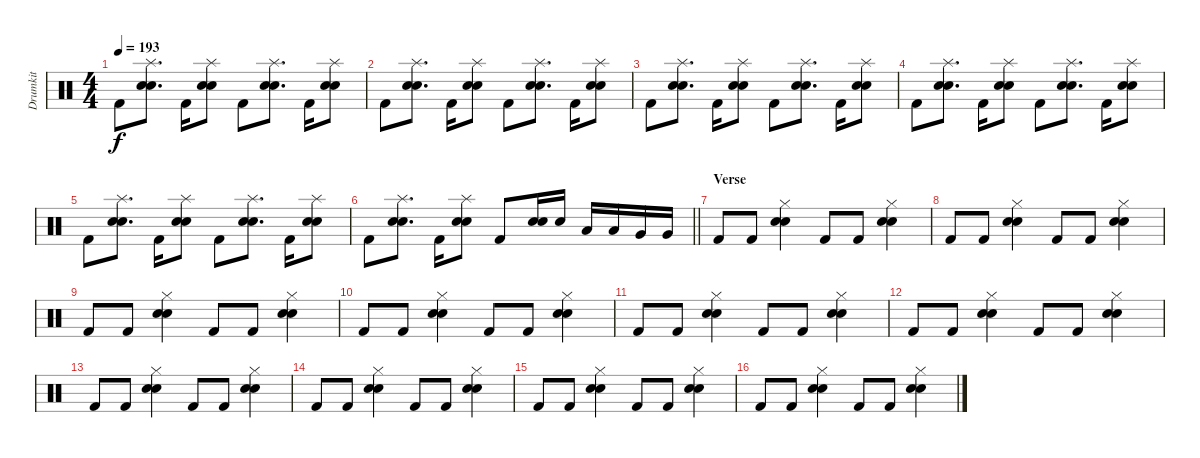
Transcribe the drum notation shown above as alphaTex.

\track ("Drumkit" "Drumkit") {instrument percussion}
\staff {score}
\articulation defaults
\ts (4 4)
\tempo 193
\clef neutral
\ks c "Kick (hit) 2".8{dy f}
("Splash (hit)" "Electric Snare (hit)" "Snare (hit) 2").8{d} "Kick (hit) 2".16 ("Splash (hit)" "Electric Snare (hit)" "Snare (hit) 2").8 "Kick (hit) 2".8 ("Splash (hit)" "Electric Snare (hit)" "Snare (hit) 2").8{d} "Kick (hit) 2".16 ("Splash (hit)" "Electric Snare (hit)" "Snare (hit) 2").8 |
"Kick (hit) 2".8 ("Splash (hit)" "Electric Snare (hit)" "Snare (hit) 2").8{d} "Kick (hit) 2".16 ("Splash (hit)" "Electric Snare (hit)" "Snare (hit) 2").8 "Kick (hit) 2".8 ("Splash (hit)" "Electric Snare (hit)" "Snare (hit) 2").8{d} "Kick (hit) 2".16 ("Splash (hit)" "Electric Snare (hit)" "Snare (hit) 2").8 |
"Kick (hit) 2".8 ("Splash (hit)" "Electric Snare (hit)" "Snare (hit) 2").8{d} "Kick (hit) 2".16 ("Splash (hit)" "Electric Snare (hit)" "Snare (hit) 2").8 "Kick (hit) 2".8 ("Splash (hit)" "Electric Snare (hit)" "Snare (hit) 2").8{d} "Kick (hit) 2".16 ("Splash (hit)" "Electric Snare (hit)" "Snare (hit) 2").8 |
"Kick (hit) 2".8 ("Splash (hit)" "Electric Snare (hit)" "Snare (hit) 2").8{d} "Kick (hit) 2".16 ("Splash (hit)" "Electric Snare (hit)" "Snare (hit) 2").8 "Kick (hit) 2".8 ("Splash (hit)" "Electric Snare (hit)" "Snare (hit) 2").8{d} "Kick (hit) 2".16 ("Splash (hit)" "Electric Snare (hit)" "Snare (hit) 2").8 |
"Kick (hit) 2".8 ("Splash (hit)" "Electric Snare (hit)" "Snare (hit) 2").8{d} "Kick (hit) 2".16 ("Splash (hit)" "Electric Snare (hit)" "Snare (hit) 2").8 "Kick (hit) 2".8 ("Splash (hit)" "Electric Snare (hit)" "Snare (hit) 2").8{d} "Kick (hit) 2".16 ("Splash (hit)" "Electric Snare (hit)" "Snare (hit) 2").8 |
\barLineRight lightlight "Kick (hit) 2".8
("Splash (hit)" "Electric Snare (hit)" "Snare (hit) 2").8{d} "Kick (hit) 2".16 ("Splash (hit)" "Electric Snare (hit)" "Snare (hit) 2").8 "Kick (hit) 2".8 ("Electric Snare (hit)" "Snare (hit) 2").16 "Electric Snare (hit)".16 "Low Tom (hit)".16 "Low Tom (hit)".16 "Very Low Tom (hit)".16 "Very Low Tom (hit)".16 |
\section ("" "Verse")
"Kick (hit) 2".8 "Kick (hit) 2".8 ("Snare (hit) 2" "Hi-Hat (closed)" "Electric Snare (hit)").4 "Kick (hit) 2".8 "Kick (hit) 2".8 ("Snare (hit) 2" "Hi-Hat (closed)" "Electric Snare (hit)").4 |
"Kick (hit) 2".8 "Kick (hit) 2".8 ("Snare (hit) 2" "Hi-Hat (closed)" "Electric Snare (hit)").4 "Kick (hit) 2".8 "Kick (hit) 2".8 ("Snare (hit) 2" "Hi-Hat (closed)" "Electric Snare (hit)").4 |
"Kick (hit) 2".8 "Kick (hit) 2".8 ("Snare (hit) 2" "Hi-Hat (closed)" "Electric Snare (hit)").4 "Kick (hit) 2".8 "Kick (hit) 2".8 ("Snare (hit) 2" "Hi-Hat (closed)" "Electric Snare (hit)").4 |
"Kick (hit) 2".8 "Kick (hit) 2".8 ("Snare (hit) 2" "Hi-Hat (closed)" "Electric Snare (hit)").4 "Kick (hit) 2".8 "Kick (hit) 2".8 ("Snare (hit) 2" "Hi-Hat (closed)" "Electric Snare (hit)").4 |
"Kick (hit) 2".8 "Kick (hit) 2".8 ("Snare (hit) 2" "Hi-Hat (closed)" "Electric Snare (hit)").4 "Kick (hit) 2".8 "Kick (hit) 2".8 ("Snare (hit) 2" "Hi-Hat (closed)" "Electric Snare (hit)").4 |
"Kick (hit) 2".8 "Kick (hit) 2".8 ("Snare (hit) 2" "Hi-Hat (closed)" "Electric Snare (hit)").4 "Kick (hit) 2".8 "Kick (hit) 2".8 ("Snare (hit) 2" "Hi-Hat (closed)" "Electric Snare (hit)").4 |
"Kick (hit) 2".8 "Kick (hit) 2".8 ("Snare (hit) 2" "Hi-Hat (closed)" "Electric Snare (hit)").4 "Kick (hit) 2".8 "Kick (hit) 2".8 ("Snare (hit) 2" "Hi-Hat (closed)" "Electric Snare (hit)").4 |
"Kick (hit) 2".8 "Kick (hit) 2".8 ("Snare (hit) 2" "Hi-Hat (closed)" "Electric Snare (hit)").4 "Kick (hit) 2".8 "Kick (hit) 2".8 ("Snare (hit) 2" "Hi-Hat (closed)" "Electric Snare (hit)").4 |
"Kick (hit) 2".8 "Kick (hit) 2".8 ("Snare (hit) 2" "Hi-Hat (closed)" "Electric Snare (hit)").4 "Kick (hit) 2".8 "Kick (hit) 2".8 ("Snare (hit) 2" "Hi-Hat (closed)" "Electric Snare (hit)").4 |
"Kick (hit) 2".8 "Kick (hit) 2".8 ("Snare (hit) 2" "Hi-Hat (closed)" "Electric Snare (hit)").4 "Kick (hit) 2".8 "Kick (hit) 2".8 ("Snare (hit) 2" "Hi-Hat (closed)" "Electric Snare (hit)").4
